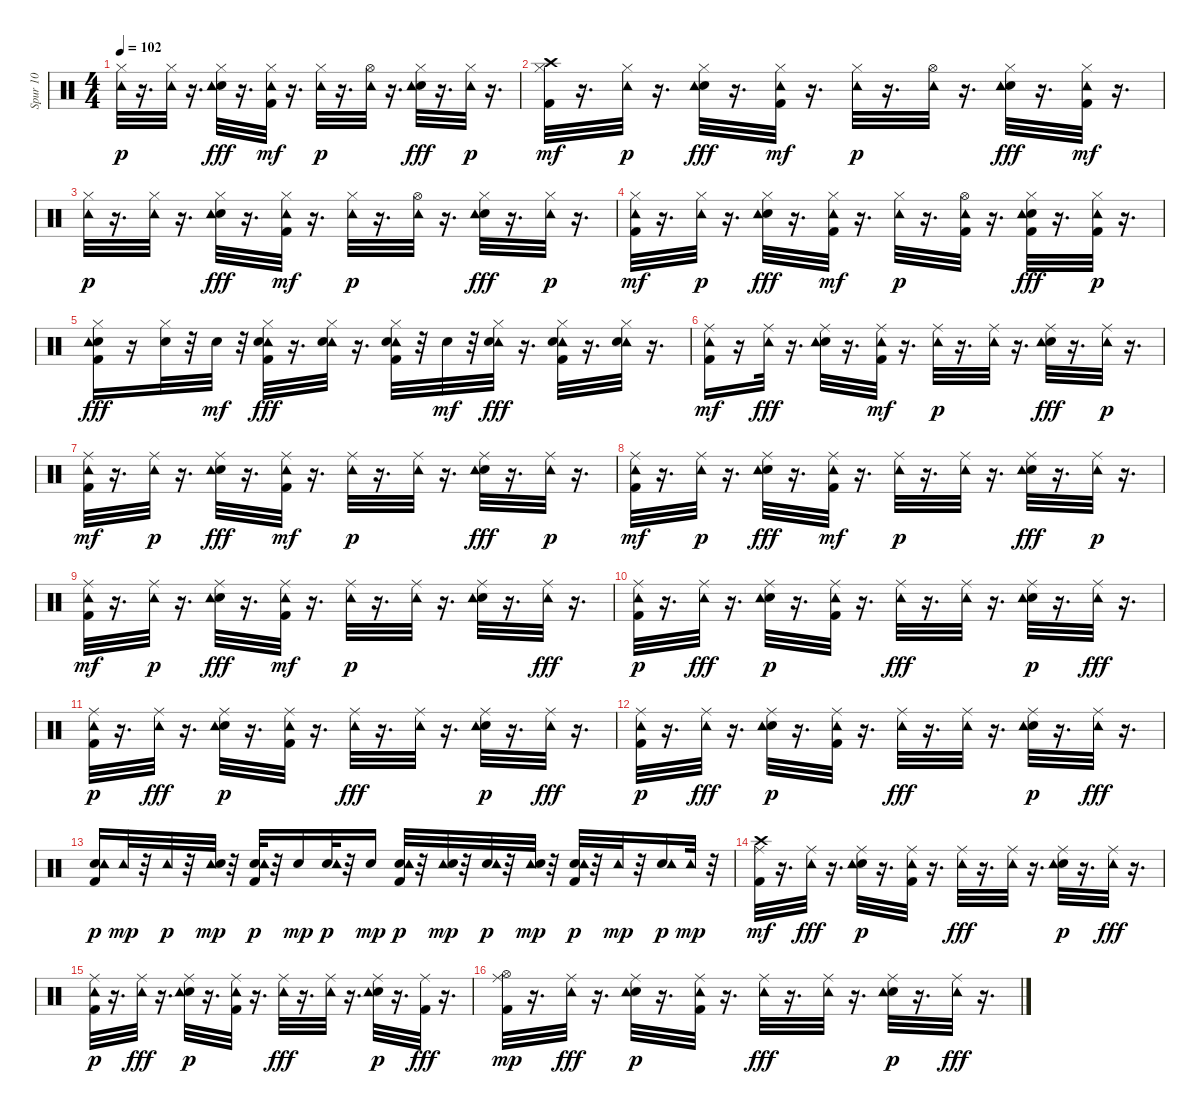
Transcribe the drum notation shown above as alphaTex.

\track ("Spur 10" "Spur 10") {instrument percussion}
\staff {score}
\articulation defaults
\ts (4 4)
\tempo 102
\clef neutral
\ks c
("Hi-Hat (closed)" "Tambourine (hit)").32{dy p} r.16{d} ("Hi-Hat (closed)" "Tambourine (hit)").32 r.16{d} ("Electric Snare (hit)" "Tambourine (hit)" "Hi-Hat (closed)").32{dy fff} r.16{d} ("Hi-Hat (closed)" "Tambourine (hit)" "Kick (hit) 2").32{dy mf} r.16{d} ("Hi-Hat (closed)" "Tambourine (hit)").32{dy p} r.16{d} ("Hi-Hat (open)" "Tambourine (hit)").32 r.16{d} ("Electric Snare (hit)" "Tambourine (hit)" "Hi-Hat (closed)").32{dy fff} r.16{d} ("Hi-Hat (closed)" "Tambourine (hit)").32{dy p} r.16{d} |
("Hi-Hat (closed)" "Crash high (hit)" "Kick (hit) 2").32{dy mf} r.16{d} ("Hi-Hat (closed)" "Tambourine (hit)").32{dy p} r.16{d} ("Electric Snare (hit)" "Tambourine (hit)" "Hi-Hat (closed)").32{dy fff} r.16{d} ("Hi-Hat (closed)" "Tambourine (hit)" "Kick (hit) 2").32{dy mf} r.16{d} ("Hi-Hat (closed)" "Tambourine (hit)").32{dy p} r.16{d} ("Hi-Hat (open)" "Tambourine (hit)").32 r.16{d} ("Electric Snare (hit)" "Tambourine (hit)" "Hi-Hat (closed)").32{dy fff} r.16{d} ("Hi-Hat (closed)" "Tambourine (hit)" "Kick (hit) 2").32{dy mf} r.16{d} |
("Hi-Hat (closed)" "Tambourine (hit)").32{dy p} r.16{d} ("Hi-Hat (closed)" "Tambourine (hit)").32 r.16{d} ("Electric Snare (hit)" "Tambourine (hit)" "Hi-Hat (closed)").32{dy fff} r.16{d} ("Hi-Hat (closed)" "Tambourine (hit)" "Kick (hit) 2").32{dy mf} r.16{d} ("Hi-Hat (closed)" "Tambourine (hit)").32{dy p} r.16{d} ("Hi-Hat (open)" "Tambourine (hit)").32 r.16{d} ("Electric Snare (hit)" "Tambourine (hit)" "Hi-Hat (closed)").32{dy fff} r.16{d} ("Hi-Hat (closed)" "Tambourine (hit)").32{dy p} r.16{d} |
("Hi-Hat (closed)" "Tambourine (hit)" "Kick (hit) 2").32{dy mf} r.16{d} ("Hi-Hat (closed)" "Tambourine (hit)").32{dy p} r.16{d} ("Electric Snare (hit)" "Tambourine (hit)" "Hi-Hat (closed)").32{dy fff} r.16{d} ("Hi-Hat (closed)" "Tambourine (hit)" "Kick (hit) 2").32{dy mf} r.16{d} ("Hi-Hat (closed)" "Tambourine (hit)").32{dy p} r.16{d} ("Kick (hit) 2" "Hi-Hat (open)" "Tambourine (hit)").32 r.16{d} ("Kick (hit) 2" "Electric Snare (hit)" "Tambourine (hit)" "Hi-Hat (closed)").32{dy fff} r.16{d} ("Kick (hit) 2" "Hi-Hat (closed)" "Tambourine (hit)").32{dy p} r.16{d} |
("Electric Snare (hit)" "Kick (hit) 2" "Tambourine (hit)" "Hi-Hat (closed)").16{dy fff} r.16 ("Electric Snare (hit)" "Hi-Hat (closed)").32 r.32 "Electric Snare (hit)".32{dy mf} r.32 ("Kick (hit) 2" "Tambourine (hit)" "Electric Snare (hit)" "Hi-Hat (closed)").32{dy fff} r.16{d} ("Tambourine (hit)" "Electric Snare (hit)" "Hi-Hat (closed)").32 r.16{d} ("Kick (hit) 2" "Tambourine (hit)" "Electric Snare (hit)" "Hi-Hat (closed)").32 r.32 "Electric Snare (hit)".32{dy mf} r.32 ("Tambourine (hit)" "Electric Snare (hit)" "Hi-Hat (closed)").32{dy fff} r.16{d} ("Kick (hit) 2" "Tambourine (hit)" "Electric Snare (hit)" "Hi-Hat (closed)").32 r.16{d} ("Tambourine (hit)" "Electric Snare (hit)" "Hi-Hat (closed)").32 r.16{d} |
("Ride (middle)" "Tambourine (hit)" "Kick (hit) 2").16{dy mf} r.16 ("Tambourine (hit)" "Ride (middle)").32{dy fff} r.16{d} ("Electric Snare (hit)" "Tambourine (hit)" "Ride (middle)").32 r.16{d} ("Ride (middle)" "Tambourine (hit)" "Kick (hit) 2").32{dy mf} r.16{d} ("Ride (middle)" "Tambourine (hit)").32{dy p} r.16{d} ("Ride (middle)" "Tambourine (hit)").32 r.16{d} ("Electric Snare (hit)" "Tambourine (hit)" "Ride (middle)").32{dy fff} r.16{d} ("Ride (middle)" "Tambourine (hit)").32{dy p} r.16{d} |
("Ride (middle)" "Tambourine (hit)" "Kick (hit) 2").32{dy mf} r.16{d} ("Ride (middle)" "Tambourine (hit)").32{dy p} r.16{d} ("Electric Snare (hit)" "Tambourine (hit)" "Ride (middle)").32{dy fff} r.16{d} ("Ride (middle)" "Tambourine (hit)" "Kick (hit) 2").32{dy mf} r.16{d} ("Ride (middle)" "Tambourine (hit)").32{dy p} r.16{d} ("Ride (middle)" "Tambourine (hit)").32 r.16{d} ("Electric Snare (hit)" "Tambourine (hit)" "Ride (middle)").32{dy fff} r.16{d} ("Ride (middle)" "Tambourine (hit)").32{dy p} r.16{d} |
("Ride (middle)" "Tambourine (hit)" "Kick (hit) 2").32{dy mf} r.16{d} ("Ride (middle)" "Tambourine (hit)").32{dy p} r.16{d} ("Electric Snare (hit)" "Tambourine (hit)" "Ride (middle)").32{dy fff} r.16{d} ("Ride (middle)" "Tambourine (hit)" "Kick (hit) 2").32{dy mf} r.16{d} ("Ride (middle)" "Tambourine (hit)").32{dy p} r.16{d} ("Ride (middle)" "Tambourine (hit)").32 r.16{d} ("Electric Snare (hit)" "Tambourine (hit)" "Ride (middle)").32{dy fff} r.16{d} ("Ride (middle)" "Tambourine (hit)").32{dy p} r.16{d} |
("Ride (middle)" "Tambourine (hit)" "Kick (hit) 2").32{dy mf} r.16{d} ("Ride (middle)" "Tambourine (hit)").32{dy p} r.16{d} ("Electric Snare (hit)" "Tambourine (hit)" "Ride (middle)").32{dy fff} r.16{d} ("Ride (middle)" "Tambourine (hit)" "Kick (hit) 2").32{dy mf} r.16{d} ("Ride (middle)" "Tambourine (hit)").32{dy p} r.16{d} ("Ride (middle)" "Tambourine (hit)").32 r.16{d} ("Ride (middle)" "Electric Snare (hit)" "Tambourine (hit)").32 r.16{d} ("Tambourine (hit)" "Ride (middle)").32{dy fff} r.16{d} |
("Kick (hit) 2" "Ride (middle)" "Tambourine (hit)").32{dy p} r.16{d} ("Tambourine (hit)" "Ride (middle)").32{dy fff} r.16{d} ("Ride (middle)" "Electric Snare (hit)" "Tambourine (hit)").32{dy p} r.16{d} ("Kick (hit) 2" "Ride (middle)" "Tambourine (hit)").32 r.16{d} ("Tambourine (hit)" "Ride (middle)").32{dy fff} r.16{d} ("Tambourine (hit)" "Ride (middle)").32 r.16{d} ("Ride (middle)" "Electric Snare (hit)" "Tambourine (hit)").32{dy p} r.16{d} ("Tambourine (hit)" "Ride (middle)").32{dy fff} r.16{d} |
("Kick (hit) 2" "Ride (middle)" "Tambourine (hit)").32{dy p} r.16{d} ("Tambourine (hit)" "Ride (middle)").32{dy fff} r.16{d} ("Ride (middle)" "Electric Snare (hit)" "Tambourine (hit)").32{dy p} r.16{d} ("Kick (hit) 2" "Ride (middle)" "Tambourine (hit)").32 r.16{d} ("Tambourine (hit)" "Ride (middle)").32{dy fff} r.16{d} ("Tambourine (hit)" "Ride (middle)").32 r.16{d} ("Ride (middle)" "Electric Snare (hit)" "Tambourine (hit)").32{dy p} r.16{d} ("Tambourine (hit)" "Ride (middle)").32{dy fff} r.16{d} |
("Kick (hit) 2" "Ride (middle)" "Tambourine (hit)").32{dy p} r.16{d} ("Tambourine (hit)" "Ride (middle)").32{dy fff} r.16{d} ("Ride (middle)" "Electric Snare (hit)" "Tambourine (hit)").32{dy p} r.16{d} ("Kick (hit) 2" "Ride (middle)" "Tambourine (hit)").32 r.16{d} ("Tambourine (hit)" "Ride (middle)").32{dy fff} r.16{d} ("Tambourine (hit)" "Ride (middle)").32 r.16{d} ("Ride (middle)" "Electric Snare (hit)" "Tambourine (hit)").32{dy p} r.16{d} ("Tambourine (hit)" "Ride (middle)").32{dy fff} r.16{d} |
("Electric Snare (hit)" "Kick (hit) 2" "Tambourine (hit)").16{dy p} "Tambourine (hit)".32{dy mp} r.32 "Tambourine (hit)".32{dy p} r.32 ("Tambourine (hit)" "Electric Snare (hit)").32{dy mp} r.32 ("Kick (hit) 2" "Electric Snare (hit)" "Tambourine (hit)").32{dy p} r.32 "Electric Snare (hit)".16{dy mp} ("Electric Snare (hit)" "Tambourine (hit)").32{dy p} r.32 "Electric Snare (hit)".16{dy mp} ("Kick (hit) 2" "Electric Snare (hit)" "Tambourine (hit)").32{dy p} r.32 ("Tambourine (hit)" "Electric Snare (hit)").32{dy mp} r.32 ("Electric Snare (hit)" "Tambourine (hit)").32{dy p} r.32 ("Tambourine (hit)" "Electric Snare (hit)").32{dy mp} r.32 ("Kick (hit) 2" "Electric Snare (hit)" "Tambourine (hit)").32{dy p} r.32 "Tambourine (hit)".32{dy mp} r.32 ("Electric Snare (hit)" "Tambourine (hit)").16{dy p} "Tambourine (hit)".32{dy mp} r.32 |
("Kick (hit) 2" "Ride (middle)" "Crash high (hit)").32{dy mf} r.16{d} ("Tambourine (hit)" "Ride (middle)").32{dy fff} r.16{d} ("Ride (middle)" "Electric Snare (hit)" "Tambourine (hit)").32{dy p} r.16{d} ("Kick (hit) 2" "Ride (middle)" "Tambourine (hit)").32 r.16{d} ("Tambourine (hit)" "Ride (middle)").32{dy fff} r.16{d} ("Tambourine (hit)" "Ride (middle)").32 r.16{d} ("Ride (middle)" "Electric Snare (hit)" "Tambourine (hit)").32{dy p} r.16{d} ("Tambourine (hit)" "Ride (middle)").32{dy fff} r.16{d} |
("Kick (hit) 2" "Ride (middle)" "Tambourine (hit)").32{dy p} r.16{d} ("Tambourine (hit)" "Ride (middle)").32{dy fff} r.16{d} ("Ride (middle)" "Electric Snare (hit)" "Tambourine (hit)").32{dy p} r.16{d} ("Kick (hit) 2" "Ride (middle)" "Tambourine (hit)").32 r.16{d} ("Tambourine (hit)" "Ride (middle)").32{dy fff} r.16{d} ("Tambourine (hit)" "Ride (middle)").32 r.16{d} ("Ride (middle)" "Electric Snare (hit)" "Tambourine (hit)").32{dy p} r.16{d} ("Kick (hit) 2" "Ride (middle)").32{dy fff} r.16{d} |
("Kick (hit) 2" "Ride (middle)" "Hi-Hat (open)").32{dy mp} r.16{d} ("Tambourine (hit)" "Ride (middle)").32{dy fff} r.16{d} ("Ride (middle)" "Electric Snare (hit)" "Tambourine (hit)").32{dy p} r.16{d} ("Kick (hit) 2" "Ride (middle)" "Tambourine (hit)").32 r.16{d} ("Tambourine (hit)" "Ride (middle)").32{dy fff} r.16{d} ("Tambourine (hit)" "Ride (middle)").32 r.16{d} ("Ride (middle)" "Electric Snare (hit)" "Tambourine (hit)").32{dy p} r.16{d} ("Tambourine (hit)" "Ride (middle)").32{dy fff} r.16{d}
